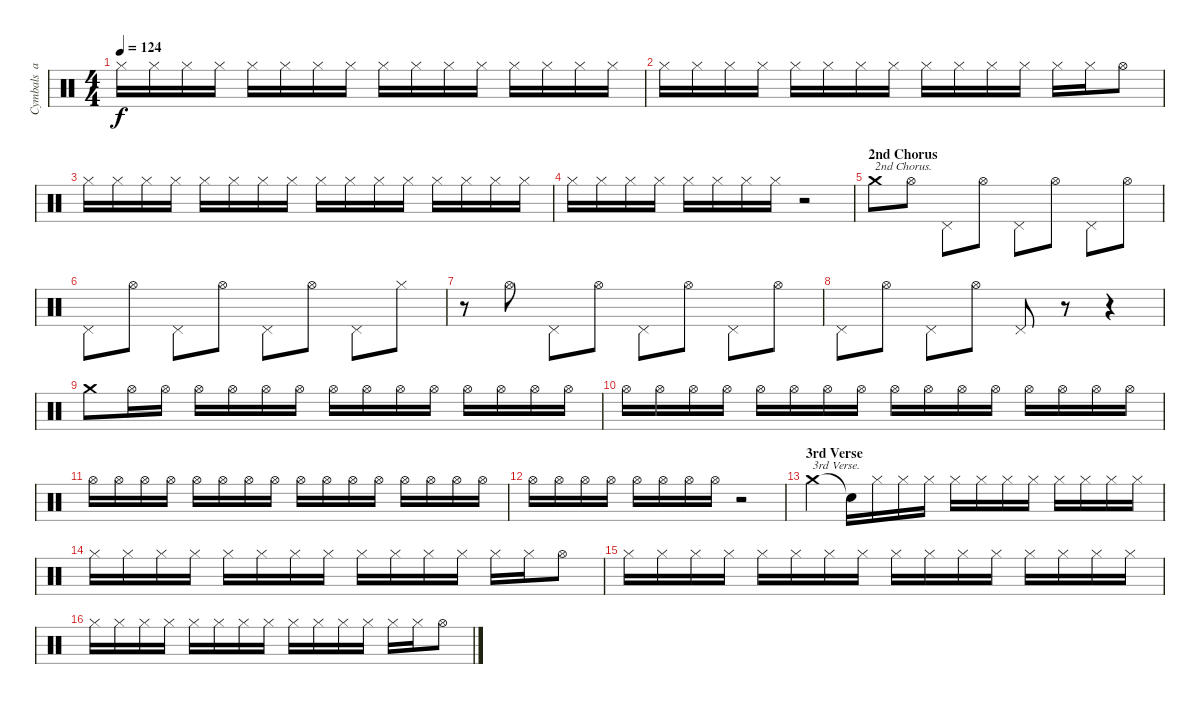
\track ("Cymbals  and Hi-hat" "Cymbals  a") {instrument percussion}
\staff {score}
\articulation defaults
\ts (4 4)
\tempo 124
\clef neutral
\ks c "Hi-Hat (closed)".16{dy f} "Hi-Hat (closed)".16 "Hi-Hat (closed)".16 "Hi-Hat (closed)".16 "Hi-Hat (closed)".16 "Hi-Hat (closed)".16 "Hi-Hat (closed)".16 "Hi-Hat (closed)".16 "Hi-Hat (closed)".16 "Hi-Hat (closed)".16 "Hi-Hat (closed)".16 "Hi-Hat (closed)".16 "Hi-Hat (closed)".16 "Hi-Hat (closed)".16 "Hi-Hat (closed)".16 "Hi-Hat (closed)".16
|
"Hi-Hat (closed)".16 "Hi-Hat (closed)".16 "Hi-Hat (closed)".16 "Hi-Hat (closed)".16 "Hi-Hat (closed)".16 "Hi-Hat (closed)".16 "Hi-Hat (closed)".16 "Hi-Hat (closed)".16 "Hi-Hat (closed)".16 "Hi-Hat (closed)".16 "Hi-Hat (closed)".16 "Hi-Hat (closed)".16 "Hi-Hat (closed)".16 "Hi-Hat (closed)".16 "Hi-Hat (open)".8 |
"Hi-Hat (closed)".16 "Hi-Hat (closed)".16 "Hi-Hat (closed)".16 "Hi-Hat (closed)".16 "Hi-Hat (closed)".16 "Hi-Hat (closed)".16 "Hi-Hat (closed)".16 "Hi-Hat (closed)".16 "Hi-Hat (closed)".16 "Hi-Hat (closed)".16 "Hi-Hat (closed)".16 "Hi-Hat (closed)".16 "Hi-Hat (closed)".16 "Hi-Hat (closed)".16 "Hi-Hat (closed)".16 "Hi-Hat (closed)".16 |
"Hi-Hat (closed)".16 "Hi-Hat (closed)".16 "Hi-Hat (closed)".16 "Hi-Hat (closed)".16 "Hi-Hat (closed)".16 "Hi-Hat (closed)".16 "Hi-Hat (closed)".16 "Hi-Hat (closed)".16 r.2 |
\section ("" "2nd Chorus")
"Crash medium (hit)".8{txt "2nd Chorus."} "Hi-Hat (open)".8 "Pedal Hi-Hat (hit)".8 "Hi-Hat (open)".8 "Pedal Hi-Hat (hit)".8 "Hi-Hat (open)".8 "Pedal Hi-Hat (hit)".8 "Hi-Hat (open)".8 |
"Pedal Hi-Hat (hit)".8 "Hi-Hat (open)".8 "Pedal Hi-Hat (hit)".8 "Hi-Hat (open)".8 "Pedal Hi-Hat (hit)".8 "Hi-Hat (open)".8 "Pedal Hi-Hat (hit)".8 "Hi-Hat (closed)".8 |
r.8 "Hi-Hat (open)".8 "Pedal Hi-Hat (hit)".8 "Hi-Hat (open)".8 "Pedal Hi-Hat (hit)".8 "Hi-Hat (open)".8 "Pedal Hi-Hat (hit)".8 "Hi-Hat (open)".8 |
"Pedal Hi-Hat (hit)".8 "Hi-Hat (open)".8 "Pedal Hi-Hat (hit)".8 "Hi-Hat (open)".8 "Pedal Hi-Hat (hit)".8 r.8 r.4 |
"Crash medium (hit)".8 "Hi-Hat (open)".16 "Hi-Hat (open)".16 "Hi-Hat (open)".16 "Hi-Hat (open)".16 "Hi-Hat (open)".16 "Hi-Hat (open)".16 "Hi-Hat (open)".16 "Hi-Hat (open)".16 "Hi-Hat (open)".16 "Hi-Hat (open)".16 "Hi-Hat (open)".16 "Hi-Hat (open)".16 "Hi-Hat (open)".16 "Hi-Hat (open)".16 |
"Hi-Hat (open)".16 "Hi-Hat (open)".16 "Hi-Hat (open)".16 "Hi-Hat (open)".16 "Hi-Hat (open)".16 "Hi-Hat (open)".16 "Hi-Hat (open)".16 "Hi-Hat (open)".16 "Hi-Hat (open)".16 "Hi-Hat (open)".16 "Hi-Hat (open)".16 "Hi-Hat (open)".16 "Hi-Hat (open)".16 "Hi-Hat (open)".16 "Hi-Hat (open)".16 "Hi-Hat (open)".16 |
"Hi-Hat (open)".16 "Hi-Hat (open)".16 "Hi-Hat (open)".16 "Hi-Hat (open)".16 "Hi-Hat (open)".16 "Hi-Hat (open)".16 "Hi-Hat (open)".16 "Hi-Hat (open)".16 "Hi-Hat (open)".16 "Hi-Hat (open)".16 "Hi-Hat (open)".16 "Hi-Hat (open)".16 "Hi-Hat (open)".16 "Hi-Hat (open)".16 "Hi-Hat (open)".16 "Hi-Hat (open)".16 |
"Hi-Hat (open)".16 "Hi-Hat (open)".16 "Hi-Hat (open)".16 "Hi-Hat (open)".16 "Hi-Hat (open)".16 "Hi-Hat (open)".16 "Hi-Hat (open)".16 "Hi-Hat (open)".16 r.2 |
\section ("" "3rd Verse")
"Crash medium (hit)".4{txt "3rd Verse."} "Snare (hit)"{t}.16 "Hi-Hat (closed)".16 "Hi-Hat (closed)".16 "Hi-Hat (closed)".16 "Hi-Hat (closed)".16 "Hi-Hat (closed)".16 "Hi-Hat (closed)".16 "Hi-Hat (closed)".16 "Hi-Hat (closed)".16 "Hi-Hat (closed)".16 "Hi-Hat (closed)".16 "Hi-Hat (closed)".16 |
"Hi-Hat (closed)".16 "Hi-Hat (closed)".16 "Hi-Hat (closed)".16 "Hi-Hat (closed)".16 "Hi-Hat (closed)".16 "Hi-Hat (closed)".16 "Hi-Hat (closed)".16 "Hi-Hat (closed)".16 "Hi-Hat (closed)".16 "Hi-Hat (closed)".16 "Hi-Hat (closed)".16 "Hi-Hat (closed)".16 "Hi-Hat (closed)".16 "Hi-Hat (closed)".16 "Hi-Hat (open)".8 |
"Hi-Hat (closed)".16 "Hi-Hat (closed)".16 "Hi-Hat (closed)".16 "Hi-Hat (closed)".16 "Hi-Hat (closed)".16 "Hi-Hat (closed)".16 "Hi-Hat (closed)".16 "Hi-Hat (closed)".16 "Hi-Hat (closed)".16 "Hi-Hat (closed)".16 "Hi-Hat (closed)".16 "Hi-Hat (closed)".16 "Hi-Hat (closed)".16 "Hi-Hat (closed)".16 "Hi-Hat (closed)".16 "Hi-Hat (closed)".16 |
"Hi-Hat (closed)".16 "Hi-Hat (closed)".16 "Hi-Hat (closed)".16 "Hi-Hat (closed)".16 "Hi-Hat (closed)".16 "Hi-Hat (closed)".16 "Hi-Hat (closed)".16 "Hi-Hat (closed)".16 "Hi-Hat (closed)".16 "Hi-Hat (closed)".16 "Hi-Hat (closed)".16 "Hi-Hat (closed)".16 "Hi-Hat (closed)".16 "Hi-Hat (closed)".16 "Hi-Hat (open)".8
